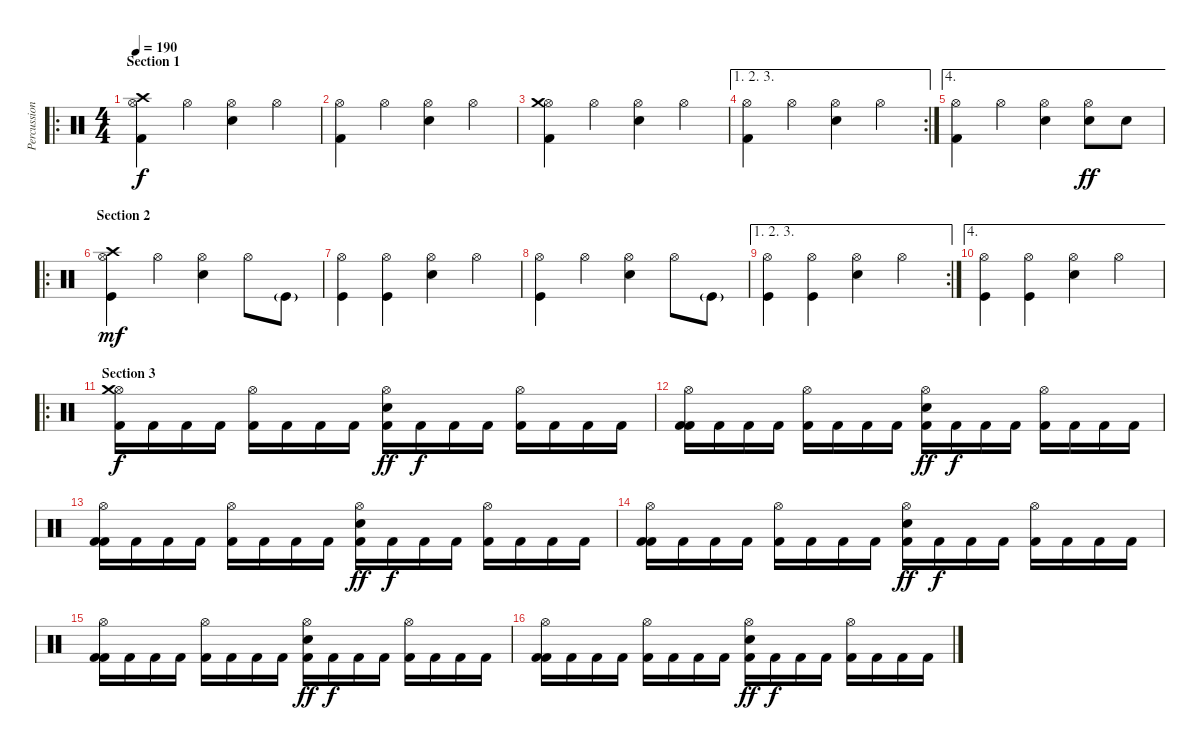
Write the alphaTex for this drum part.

\track ("Percussion" "Percussion") {instrument percussion}
\staff {score}
\articulation defaults
\ro
\ts (4 4)
\section ("" "Section 1")
\tempo 190
\clef neutral
\ks c
("Hi-Hat (open)" "Kick (hit) 2" "Crash high (hit)").4{dy f} "Hi-Hat (open)".4 ("Hi-Hat (open)" "Electric Snare (hit)").4 "Hi-Hat (open)".4 |
("Hi-Hat (open)" "Kick (hit) 2").4 "Hi-Hat (open)".4 ("Hi-Hat (open)" "Electric Snare (hit)").4 "Hi-Hat (open)".4 |
("Hi-Hat (open)" "Kick (hit) 2" "Crash medium (hit)").4 "Hi-Hat (open)".4 ("Hi-Hat (open)" "Electric Snare (hit)").4 "Hi-Hat (open)".4 |
\ae (1 2 3)
\rc 2
("Hi-Hat (open)" "Kick (hit) 2").4 "Hi-Hat (open)".4 ("Hi-Hat (open)" "Electric Snare (hit)").4 "Hi-Hat (open)".4 |
\ae 4
("Hi-Hat (open)" "Kick (hit) 2").4 "Hi-Hat (open)".4 ("Hi-Hat (open)" "Electric Snare (hit)").4 ("Hi-Hat (open)" "Electric Snare (hit)").8{dy ff} "Electric Snare (hit)".8 |
\ro
\section ("" "Section 2")
("Crash high (hit)" "Kick (hit)" "Hi-Hat (open)").4{dy mf} "Hi-Hat (open)".4 ("Electric Snare (hit)" "Hi-Hat (open)").4 "Hi-Hat (open)".8 "Kick (hit)"{g}.8 |
("Kick (hit)" "Hi-Hat (open)").4 ("Kick (hit)" "Hi-Hat (open)").4 ("Electric Snare (hit)" "Hi-Hat (open)").4 "Hi-Hat (open)".4 |
("Kick (hit)" "Hi-Hat (open)").4 "Hi-Hat (open)".4 ("Electric Snare (hit)" "Hi-Hat (open)").4 "Hi-Hat (open)".8 "Kick (hit)"{g}.8 |
\ae (1 2 3)
\rc 2
("Kick (hit)" "Hi-Hat (open)").4 ("Kick (hit)" "Hi-Hat (open)").4 ("Electric Snare (hit)" "Hi-Hat (open)").4 "Hi-Hat (open)".4 |
\ae 4
("Kick (hit)" "Hi-Hat (open)").4 ("Kick (hit)" "Hi-Hat (open)").4 ("Electric Snare (hit)" "Hi-Hat (open)").4 "Hi-Hat (open)".4 |
\ro
\section ("" "Section 3")
("Hi-Hat (open)" "Crash medium (hit)" "Kick (hit) 2").16{dy f} "Kick (hit) 2".16 "Kick (hit) 2".16 "Kick (hit) 2".16 ("Hi-Hat (open)" "Kick (hit) 2").16 "Kick (hit) 2".16 "Kick (hit) 2".16 "Kick (hit) 2".16 ("Hi-Hat (open)" "Electric Snare (hit)" "Kick (hit) 2").16{dy ff} "Kick (hit) 2".16{dy f} "Kick (hit) 2".16 "Kick (hit) 2".16 ("Hi-Hat (open)" "Kick (hit) 2").16 "Kick (hit) 2".16 "Kick (hit) 2".16 "Kick (hit) 2".16 |
("Hi-Hat (open)" "Kick (hit) 2" "Kick (hit) 2").16 "Kick (hit) 2".16 "Kick (hit) 2".16 "Kick (hit) 2".16 ("Hi-Hat (open)" "Kick (hit) 2").16 "Kick (hit) 2".16 "Kick (hit) 2".16 "Kick (hit) 2".16 ("Hi-Hat (open)" "Electric Snare (hit)" "Kick (hit) 2").16{dy ff} "Kick (hit) 2".16{dy f} "Kick (hit) 2".16 "Kick (hit) 2".16 ("Hi-Hat (open)" "Kick (hit) 2").16 "Kick (hit) 2".16 "Kick (hit) 2".16 "Kick (hit) 2".16 |
("Hi-Hat (open)" "Kick (hit) 2" "Kick (hit) 2").16 "Kick (hit) 2".16 "Kick (hit) 2".16 "Kick (hit) 2".16 ("Hi-Hat (open)" "Kick (hit) 2").16 "Kick (hit) 2".16 "Kick (hit) 2".16 "Kick (hit) 2".16 ("Hi-Hat (open)" "Electric Snare (hit)" "Kick (hit) 2").16{dy ff} "Kick (hit) 2".16{dy f} "Kick (hit) 2".16 "Kick (hit) 2".16 ("Hi-Hat (open)" "Kick (hit) 2").16 "Kick (hit) 2".16 "Kick (hit) 2".16 "Kick (hit) 2".16 |
("Hi-Hat (open)" "Kick (hit) 2" "Kick (hit) 2").16 "Kick (hit) 2".16 "Kick (hit) 2".16 "Kick (hit) 2".16 ("Hi-Hat (open)" "Kick (hit) 2").16 "Kick (hit) 2".16 "Kick (hit) 2".16 "Kick (hit) 2".16 ("Hi-Hat (open)" "Electric Snare (hit)" "Kick (hit) 2").16{dy ff} "Kick (hit) 2".16{dy f} "Kick (hit) 2".16 "Kick (hit) 2".16 ("Hi-Hat (open)" "Kick (hit) 2").16 "Kick (hit) 2".16 "Kick (hit) 2".16 "Kick (hit) 2".16 |
("Hi-Hat (open)" "Kick (hit) 2" "Kick (hit) 2").16 "Kick (hit) 2".16 "Kick (hit) 2".16 "Kick (hit) 2".16 ("Hi-Hat (open)" "Kick (hit) 2").16 "Kick (hit) 2".16 "Kick (hit) 2".16 "Kick (hit) 2".16 ("Hi-Hat (open)" "Electric Snare (hit)" "Kick (hit) 2").16{dy ff} "Kick (hit) 2".16{dy f} "Kick (hit) 2".16 "Kick (hit) 2".16 ("Hi-Hat (open)" "Kick (hit) 2").16 "Kick (hit) 2".16 "Kick (hit) 2".16 "Kick (hit) 2".16 |
("Hi-Hat (open)" "Kick (hit) 2" "Kick (hit) 2").16 "Kick (hit) 2".16 "Kick (hit) 2".16 "Kick (hit) 2".16 ("Hi-Hat (open)" "Kick (hit) 2").16 "Kick (hit) 2".16 "Kick (hit) 2".16 "Kick (hit) 2".16 ("Hi-Hat (open)" "Electric Snare (hit)" "Kick (hit) 2").16{dy ff} "Kick (hit) 2".16{dy f} "Kick (hit) 2".16 "Kick (hit) 2".16 ("Hi-Hat (open)" "Kick (hit) 2").16 "Kick (hit) 2".16 "Kick (hit) 2".16 "Kick (hit) 2".16
